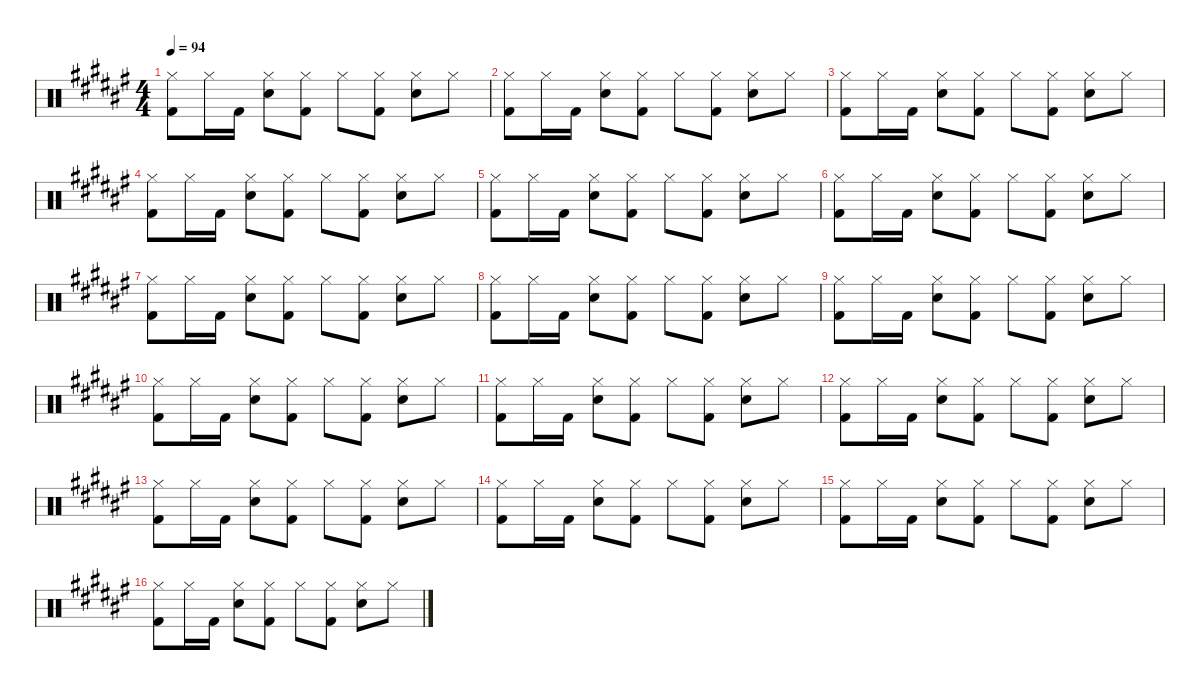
\defaultSystemsLayout 4
\hideDynamics
\bracketExtendMode nobrackets
\singleTrackTrackNamePolicy hidden
\multiTrackTrackNamePolicy hidden
\otherSystemsTrackNameOrientation horizontal
\track ("Mike Joyce" "drm.") {instrument percussion}
\staff {score}
\articulation defaults
\ts (4 4)
\tempo 94
\clef neutral
\ks f#
("Hi-Hat (closed)"{acc forcenatural} "Kick (hit) 2"{acc forcenatural}).8{dy f beam Down} "Hi-Hat (closed)"{acc forcenatural}.16{beam Down} "Kick (hit) 2"{acc forcenatural}.16{beam Down} ("Hi-Hat (closed)"{acc forcenatural} "Snare (hit) 2"{acc forcenatural}).8{beam Down} ("Hi-Hat (closed)"{acc forcenatural} "Kick (hit) 2"{acc forcenatural}).8{beam Down} "Hi-Hat (closed)"{acc forcenatural}.8{beam Down} ("Hi-Hat (closed)"{acc forcenatural} "Kick (hit) 2"{acc forcenatural}).8{beam Down} ("Hi-Hat (closed)"{acc forcenatural} "Snare (hit) 2"{acc forcenatural}).8{beam Down} "Hi-Hat (closed)"{acc forcenatural}.8{beam Down} |
("Hi-Hat (closed)"{acc forcenatural} "Kick (hit) 2"{acc forcenatural}).8{beam Down} "Hi-Hat (closed)"{acc forcenatural}.16{beam Down} "Kick (hit) 2"{acc forcenatural}.16{beam Down} ("Hi-Hat (closed)"{acc forcenatural} "Snare (hit) 2"{acc forcenatural}).8{beam Down} ("Hi-Hat (closed)"{acc forcenatural} "Kick (hit) 2"{acc forcenatural}).8{beam Down} "Hi-Hat (closed)"{acc forcenatural}.8{beam Down} ("Hi-Hat (closed)"{acc forcenatural} "Kick (hit) 2"{acc forcenatural}).8{beam Down} ("Hi-Hat (closed)"{acc forcenatural} "Snare (hit) 2"{acc forcenatural}).8{beam Down} "Hi-Hat (closed)"{acc forcenatural}.8{beam Down} |
("Hi-Hat (closed)"{acc forcenatural} "Kick (hit) 2"{acc forcenatural}).8{beam Down} "Hi-Hat (closed)"{acc forcenatural}.16{beam Down} "Kick (hit) 2"{acc forcenatural}.16{beam Down} ("Hi-Hat (closed)"{acc forcenatural} "Snare (hit) 2"{acc forcenatural}).8{beam Down} ("Hi-Hat (closed)"{acc forcenatural} "Kick (hit) 2"{acc forcenatural}).8{beam Down} "Hi-Hat (closed)"{acc forcenatural}.8{beam Down} ("Hi-Hat (closed)"{acc forcenatural} "Kick (hit) 2"{acc forcenatural}).8{beam Down} ("Hi-Hat (closed)"{acc forcenatural} "Snare (hit) 2"{acc forcenatural}).8{beam Down} "Hi-Hat (closed)"{acc forcenatural}.8{beam Down} |
("Hi-Hat (closed)"{acc forcenatural} "Kick (hit) 2"{acc forcenatural}).8{beam Down} "Hi-Hat (closed)"{acc forcenatural}.16{beam Down} "Kick (hit) 2"{acc forcenatural}.16{beam Down} ("Hi-Hat (closed)"{acc forcenatural} "Snare (hit) 2"{acc forcenatural}).8{beam Down} ("Hi-Hat (closed)"{acc forcenatural} "Kick (hit) 2"{acc forcenatural}).8{beam Down} "Hi-Hat (closed)"{acc forcenatural}.8{beam Down} ("Hi-Hat (closed)"{acc forcenatural} "Kick (hit) 2"{acc forcenatural}).8{beam Down} ("Hi-Hat (closed)"{acc forcenatural} "Snare (hit) 2"{acc forcenatural}).8{beam Down} "Hi-Hat (closed)"{acc forcenatural}.8{beam Down} |
("Hi-Hat (closed)"{acc forcenatural} "Kick (hit) 2"{acc forcenatural}).8{beam Down} "Hi-Hat (closed)"{acc forcenatural}.16{beam Down} "Kick (hit) 2"{acc forcenatural}.16{beam Down} ("Hi-Hat (closed)"{acc forcenatural} "Snare (hit) 2"{acc forcenatural}).8{beam Down} ("Hi-Hat (closed)"{acc forcenatural} "Kick (hit) 2"{acc forcenatural}).8{beam Down} "Hi-Hat (closed)"{acc forcenatural}.8{beam Down} ("Hi-Hat (closed)"{acc forcenatural} "Kick (hit) 2"{acc forcenatural}).8{beam Down} ("Hi-Hat (closed)"{acc forcenatural} "Snare (hit) 2"{acc forcenatural}).8{beam Down} "Hi-Hat (closed)"{acc forcenatural}.8{beam Down} |
("Hi-Hat (closed)"{acc forcenatural} "Kick (hit) 2"{acc forcenatural}).8{beam Down} "Hi-Hat (closed)"{acc forcenatural}.16{beam Down} "Kick (hit) 2"{acc forcenatural}.16{beam Down} ("Hi-Hat (closed)"{acc forcenatural} "Snare (hit) 2"{acc forcenatural}).8{beam Down} ("Hi-Hat (closed)"{acc forcenatural} "Kick (hit) 2"{acc forcenatural}).8{beam Down} "Hi-Hat (closed)"{acc forcenatural}.8{beam Down} ("Hi-Hat (closed)"{acc forcenatural} "Kick (hit) 2"{acc forcenatural}).8{beam Down} ("Hi-Hat (closed)"{acc forcenatural} "Snare (hit) 2"{acc forcenatural}).8{beam Down} "Hi-Hat (closed)"{acc forcenatural}.8{beam Down} |
("Hi-Hat (closed)"{acc forcenatural} "Kick (hit) 2"{acc forcenatural}).8{beam Down} "Hi-Hat (closed)"{acc forcenatural}.16{beam Down} "Kick (hit) 2"{acc forcenatural}.16{beam Down} ("Hi-Hat (closed)"{acc forcenatural} "Snare (hit) 2"{acc forcenatural}).8{beam Down} ("Hi-Hat (closed)"{acc forcenatural} "Kick (hit) 2"{acc forcenatural}).8{beam Down} "Hi-Hat (closed)"{acc forcenatural}.8{beam Down} ("Hi-Hat (closed)"{acc forcenatural} "Kick (hit) 2"{acc forcenatural}).8{beam Down} ("Hi-Hat (closed)"{acc forcenatural} "Snare (hit) 2"{acc forcenatural}).8{beam Down} "Hi-Hat (closed)"{acc forcenatural}.8{beam Down} |
("Hi-Hat (closed)"{acc forcenatural} "Kick (hit) 2"{acc forcenatural}).8{beam Down} "Hi-Hat (closed)"{acc forcenatural}.16{beam Down} "Kick (hit) 2"{acc forcenatural}.16{beam Down} ("Hi-Hat (closed)"{acc forcenatural} "Snare (hit) 2"{acc forcenatural}).8{beam Down} ("Hi-Hat (closed)"{acc forcenatural} "Kick (hit) 2"{acc forcenatural}).8{beam Down} "Hi-Hat (closed)"{acc forcenatural}.8{beam Down} ("Hi-Hat (closed)"{acc forcenatural} "Kick (hit) 2"{acc forcenatural}).8{beam Down} ("Hi-Hat (closed)"{acc forcenatural} "Snare (hit) 2"{acc forcenatural}).8{beam Down} "Hi-Hat (closed)"{acc forcenatural}.8{beam Down} |
("Hi-Hat (closed)"{acc forcenatural} "Kick (hit) 2"{acc forcenatural}).8{beam Down} "Hi-Hat (closed)"{acc forcenatural}.16{beam Down} "Kick (hit) 2"{acc forcenatural}.16{beam Down} ("Hi-Hat (closed)"{acc forcenatural} "Snare (hit) 2"{acc forcenatural}).8{beam Down} ("Hi-Hat (closed)"{acc forcenatural} "Kick (hit) 2"{acc forcenatural}).8{beam Down} "Hi-Hat (closed)"{acc forcenatural}.8{beam Down} ("Hi-Hat (closed)"{acc forcenatural} "Kick (hit) 2"{acc forcenatural}).8{beam Down} ("Hi-Hat (closed)"{acc forcenatural} "Snare (hit) 2"{acc forcenatural}).8{beam Down} "Hi-Hat (closed)"{acc forcenatural}.8{beam Down} |
("Hi-Hat (closed)"{acc forcenatural} "Kick (hit) 2"{acc forcenatural}).8{beam Down} "Hi-Hat (closed)"{acc forcenatural}.16{beam Down} "Kick (hit) 2"{acc forcenatural}.16{beam Down} ("Hi-Hat (closed)"{acc forcenatural} "Snare (hit) 2"{acc forcenatural}).8{beam Down} ("Hi-Hat (closed)"{acc forcenatural} "Kick (hit) 2"{acc forcenatural}).8{beam Down} "Hi-Hat (closed)"{acc forcenatural}.8{beam Down} ("Hi-Hat (closed)"{acc forcenatural} "Kick (hit) 2"{acc forcenatural}).8{beam Down} ("Hi-Hat (closed)"{acc forcenatural} "Snare (hit) 2"{acc forcenatural}).8{beam Down} "Hi-Hat (closed)"{acc forcenatural}.8{beam Down} |
("Hi-Hat (closed)"{acc forcenatural} "Kick (hit) 2"{acc forcenatural}).8{beam Down} "Hi-Hat (closed)"{acc forcenatural}.16{beam Down} "Kick (hit) 2"{acc forcenatural}.16{beam Down} ("Hi-Hat (closed)"{acc forcenatural} "Snare (hit) 2"{acc forcenatural}).8{beam Down} ("Hi-Hat (closed)"{acc forcenatural} "Kick (hit) 2"{acc forcenatural}).8{beam Down} "Hi-Hat (closed)"{acc forcenatural}.8{beam Down} ("Hi-Hat (closed)"{acc forcenatural} "Kick (hit) 2"{acc forcenatural}).8{beam Down} ("Hi-Hat (closed)"{acc forcenatural} "Snare (hit) 2"{acc forcenatural}).8{beam Down} "Hi-Hat (closed)"{acc forcenatural}.8{beam Down} |
("Hi-Hat (closed)"{acc forcenatural} "Kick (hit) 2"{acc forcenatural}).8{beam Down} "Hi-Hat (closed)"{acc forcenatural}.16{beam Down} "Kick (hit) 2"{acc forcenatural}.16{beam Down} ("Hi-Hat (closed)"{acc forcenatural} "Snare (hit) 2"{acc forcenatural}).8{beam Down} ("Hi-Hat (closed)"{acc forcenatural} "Kick (hit) 2"{acc forcenatural}).8{beam Down} "Hi-Hat (closed)"{acc forcenatural}.8{beam Down} ("Hi-Hat (closed)"{acc forcenatural} "Kick (hit) 2"{acc forcenatural}).8{beam Down} ("Hi-Hat (closed)"{acc forcenatural} "Snare (hit) 2"{acc forcenatural}).8{beam Down} "Hi-Hat (closed)"{acc forcenatural}.8{beam Down} |
("Hi-Hat (closed)"{acc forcenatural} "Kick (hit) 2"{acc forcenatural}).8{beam Down} "Hi-Hat (closed)"{acc forcenatural}.16{beam Down} "Kick (hit) 2"{acc forcenatural}.16{beam Down} ("Hi-Hat (closed)"{acc forcenatural} "Snare (hit) 2"{acc forcenatural}).8{beam Down} ("Hi-Hat (closed)"{acc forcenatural} "Kick (hit) 2"{acc forcenatural}).8{beam Down} "Hi-Hat (closed)"{acc forcenatural}.8{beam Down} ("Hi-Hat (closed)"{acc forcenatural} "Kick (hit) 2"{acc forcenatural}).8{beam Down} ("Hi-Hat (closed)"{acc forcenatural} "Snare (hit) 2"{acc forcenatural}).8{beam Down} "Hi-Hat (closed)"{acc forcenatural}.8{beam Down} |
("Hi-Hat (closed)"{acc forcenatural} "Kick (hit) 2"{acc forcenatural}).8{beam Down} "Hi-Hat (closed)"{acc forcenatural}.16{beam Down} "Kick (hit) 2"{acc forcenatural}.16{beam Down} ("Hi-Hat (closed)"{acc forcenatural} "Snare (hit) 2"{acc forcenatural}).8{beam Down} ("Hi-Hat (closed)"{acc forcenatural} "Kick (hit) 2"{acc forcenatural}).8{beam Down} "Hi-Hat (closed)"{acc forcenatural}.8{beam Down} ("Hi-Hat (closed)"{acc forcenatural} "Kick (hit) 2"{acc forcenatural}).8{beam Down} ("Hi-Hat (closed)"{acc forcenatural} "Snare (hit) 2"{acc forcenatural}).8{beam Down} "Hi-Hat (closed)"{acc forcenatural}.8{beam Down} |
("Hi-Hat (closed)"{acc forcenatural} "Kick (hit) 2"{acc forcenatural}).8{beam Down} "Hi-Hat (closed)"{acc forcenatural}.16{beam Down} "Kick (hit) 2"{acc forcenatural}.16{beam Down} ("Hi-Hat (closed)"{acc forcenatural} "Snare (hit) 2"{acc forcenatural}).8{beam Down} ("Hi-Hat (closed)"{acc forcenatural} "Kick (hit) 2"{acc forcenatural}).8{beam Down} "Hi-Hat (closed)"{acc forcenatural}.8{beam Down} ("Hi-Hat (closed)"{acc forcenatural} "Kick (hit) 2"{acc forcenatural}).8{beam Down} ("Hi-Hat (closed)"{acc forcenatural} "Snare (hit) 2"{acc forcenatural}).8{beam Down} "Hi-Hat (closed)"{acc forcenatural}.8{beam Down} |
("Hi-Hat (closed)"{acc forcenatural} "Kick (hit) 2"{acc forcenatural}).8{beam Down} "Hi-Hat (closed)"{acc forcenatural}.16{beam Down} "Kick (hit) 2"{acc forcenatural}.16{beam Down} ("Hi-Hat (closed)"{acc forcenatural} "Snare (hit) 2"{acc forcenatural}).8{beam Down} ("Hi-Hat (closed)"{acc forcenatural} "Kick (hit) 2"{acc forcenatural}).8{beam Down} "Hi-Hat (closed)"{acc forcenatural}.8{beam Down} ("Hi-Hat (closed)"{acc forcenatural} "Kick (hit) 2"{acc forcenatural}).8{beam Down} ("Hi-Hat (closed)"{acc forcenatural} "Snare (hit) 2"{acc forcenatural}).8{beam Down} "Hi-Hat (closed)"{acc forcenatural}.8{beam Down}
